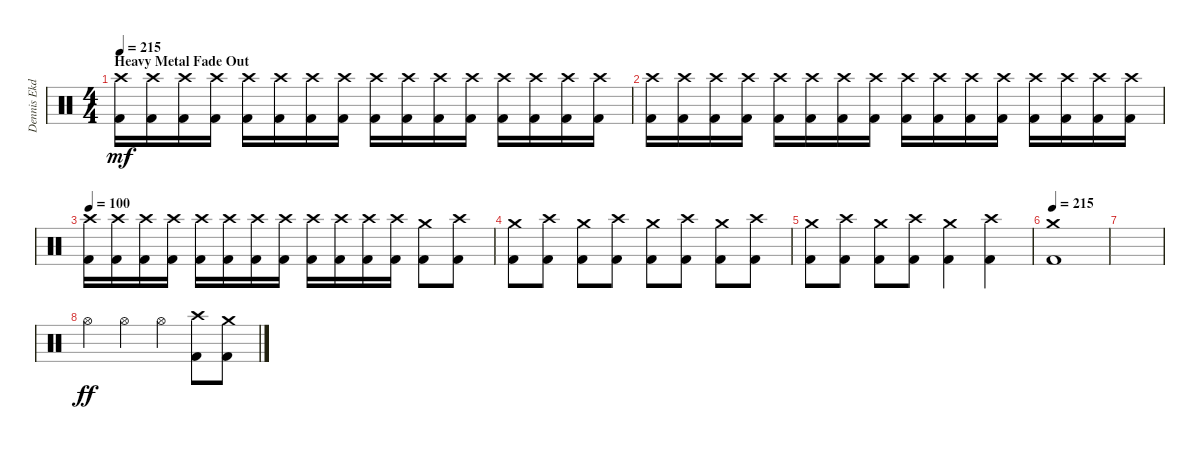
\track ("Dennis Ekdahl      (Drums)" "Dennis Ekd") {instrument percussion}
\staff {score}
\articulation defaults
\ts (4 4)
\section ("" "Heavy Metal Fade Out")
\tempo 215
\clef neutral
\ks c
("Crash high (hit)" "Kick (hit) 2").16{dy mf} ("Crash high (hit)" "Kick (hit) 2").16 ("Crash high (hit)" "Kick (hit) 2").16 ("Crash high (hit)" "Kick (hit) 2").16 ("Crash high (hit)" "Kick (hit) 2").16 ("Crash high (hit)" "Kick (hit) 2").16 ("Crash high (hit)" "Kick (hit) 2").16 ("Crash high (hit)" "Kick (hit) 2").16 ("Crash high (hit)" "Kick (hit) 2").16 ("Crash high (hit)" "Kick (hit) 2").16 ("Crash high (hit)" "Kick (hit) 2").16 ("Crash high (hit)" "Kick (hit) 2").16 ("Crash high (hit)" "Kick (hit) 2").16 ("Crash high (hit)" "Kick (hit) 2").16 ("Crash high (hit)" "Kick (hit) 2").16 ("Crash high (hit)" "Kick (hit) 2").16 |
("Crash high (hit)" "Kick (hit) 2").16 ("Crash high (hit)" "Kick (hit) 2").16 ("Crash high (hit)" "Kick (hit) 2").16 ("Crash high (hit)" "Kick (hit) 2").16 ("Crash high (hit)" "Kick (hit) 2").16 ("Crash high (hit)" "Kick (hit) 2").16 ("Crash high (hit)" "Kick (hit) 2").16 ("Crash high (hit)" "Kick (hit) 2").16 ("Crash high (hit)" "Kick (hit) 2").16 ("Crash high (hit)" "Kick (hit) 2").16 ("Crash high (hit)" "Kick (hit) 2").16 ("Crash high (hit)" "Kick (hit) 2").16 ("Crash high (hit)" "Kick (hit) 2").16 ("Crash high (hit)" "Kick (hit) 2").16 ("Crash high (hit)" "Kick (hit) 2").16 ("Crash high (hit)" "Kick (hit) 2").16 |
\tempo 100
("Crash high (hit)" "Kick (hit) 2").16 ("Crash high (hit)" "Kick (hit) 2").16 ("Crash high (hit)" "Kick (hit) 2").16 ("Crash high (hit)" "Kick (hit) 2").16 ("Crash high (hit)" "Kick (hit) 2").16 ("Crash high (hit)" "Kick (hit) 2").16 ("Crash high (hit)" "Kick (hit) 2").16 ("Crash high (hit)" "Kick (hit) 2").16 ("Crash high (hit)" "Kick (hit) 2").16 ("Crash high (hit)" "Kick (hit) 2").16 ("Crash high (hit)" "Kick (hit) 2").16 ("Crash high (hit)" "Kick (hit) 2").16 ("Crash medium (hit)" "Kick (hit) 2").8 ("Crash high (hit)" "Kick (hit) 2").8 |
("Crash medium (hit)" "Kick (hit) 2").8 ("Crash high (hit)" "Kick (hit) 2").8 ("Crash medium (hit)" "Kick (hit) 2").8 ("Crash high (hit)" "Kick (hit) 2").8 ("Crash medium (hit)" "Kick (hit) 2").8 ("Crash high (hit)" "Kick (hit) 2").8 ("Crash medium (hit)" "Kick (hit) 2").8 ("Crash high (hit)" "Kick (hit) 2").8 |
("Crash medium (hit)" "Kick (hit) 2").8 ("Crash high (hit)" "Kick (hit) 2").8 ("Crash medium (hit)" "Kick (hit) 2").8 ("Crash high (hit)" "Kick (hit) 2").8 ("Crash medium (hit)" "Kick (hit) 2").4 ("Crash high (hit)" "Kick (hit) 2").4 |
\tempo 215
("Crash medium (hit)" "Kick (hit) 2").1 |
|
"Hi-Hat (open)".4{dy ff} "Hi-Hat (open)".4 "Hi-Hat (open)".4 ("Crash high (hit)" "Kick (hit) 2").8 ("Crash medium (hit)" "Kick (hit) 2").8
